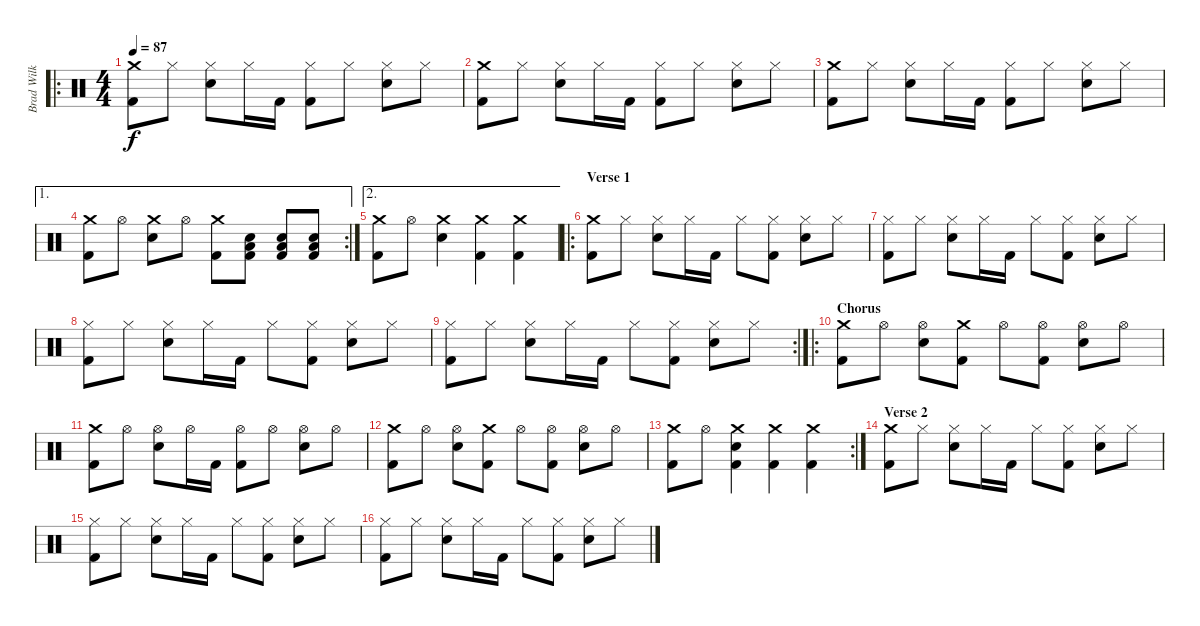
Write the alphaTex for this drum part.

\track ("Brad Wilk" "Brad Wilk") {instrument percussion}
\staff {score}
\articulation defaults
\ro
\ts (4 4)
\tempo 87
\clef neutral
\ks c
("Crash medium (hit)" "Kick (hit) 2").8{dy f} "Hi-Hat (closed)".8 ("Hi-Hat (closed)" "Electric Snare (hit)").8 "Hi-Hat (closed)".16 "Kick (hit) 2".16 ("Hi-Hat (closed)" "Kick (hit) 2").8 "Hi-Hat (closed)".8 ("Hi-Hat (closed)" "Electric Snare (hit)").8 "Hi-Hat (closed)".8 |
("Crash medium (hit)" "Kick (hit) 2").8 "Hi-Hat (closed)".8 ("Hi-Hat (closed)" "Electric Snare (hit)").8 "Hi-Hat (closed)".16 "Kick (hit) 2".16 ("Hi-Hat (closed)" "Kick (hit) 2").8 "Hi-Hat (closed)".8 ("Hi-Hat (closed)" "Electric Snare (hit)").8 "Hi-Hat (closed)".8 |
("Crash medium (hit)" "Kick (hit) 2").8 "Hi-Hat (closed)".8 ("Hi-Hat (closed)" "Electric Snare (hit)").8 "Hi-Hat (closed)".16 "Kick (hit) 2".16 ("Hi-Hat (closed)" "Kick (hit) 2").8 "Hi-Hat (closed)".8 ("Hi-Hat (closed)" "Electric Snare (hit)").8 "Hi-Hat (closed)".8 |
\ae 1
\rc 2
("Crash medium (hit)" "Kick (hit) 2").8 "Hi-Hat (open)".8 ("Crash medium (hit)" "Electric Snare (hit)").8 "Hi-Hat (open)".8 ("Crash medium (hit)" "Kick (hit) 2").8 ("Electric Snare (hit)" "Low Tom (hit)" "Kick (hit) 2").8 ("Electric Snare (hit)" "Low Tom (hit)" "Kick (hit) 2").8 ("Electric Snare (hit)" "Low Tom (hit)" "Kick (hit) 2").8 |
\ae 2
("Crash medium (hit)" "Kick (hit) 2").8 "Hi-Hat (open)".8 ("Crash medium (hit)" "Electric Snare (hit)").4 ("Crash medium (hit)" "Kick (hit) 2").4 ("Crash medium (hit)" "Kick (hit) 2").4 |
\ro
\section ("" "Verse 1")
("Crash medium (hit)" "Kick (hit) 2").8 "Hi-Hat (closed)".8 ("Hi-Hat (closed)" "Electric Snare (hit)").8 "Hi-Hat (closed)".16 "Kick (hit) 2".16 "Hi-Hat (closed)".8 ("Hi-Hat (closed)" "Kick (hit) 2").8 ("Hi-Hat (closed)" "Electric Snare (hit)").8 "Hi-Hat (closed)".8 |
("Hi-Hat (closed)" "Kick (hit) 2").8 "Hi-Hat (closed)".8 ("Hi-Hat (closed)" "Electric Snare (hit)").8 "Hi-Hat (closed)".16 "Kick (hit) 2".16 "Hi-Hat (closed)".8 ("Hi-Hat (closed)" "Kick (hit) 2").8 ("Hi-Hat (closed)" "Electric Snare (hit)").8 "Hi-Hat (closed)".8 |
("Hi-Hat (closed)" "Kick (hit) 2").8 "Hi-Hat (closed)".8 ("Hi-Hat (closed)" "Electric Snare (hit)").8 "Hi-Hat (closed)".16 "Kick (hit) 2".16 "Hi-Hat (closed)".8 ("Hi-Hat (closed)" "Kick (hit) 2").8 ("Hi-Hat (closed)" "Electric Snare (hit)").8 "Hi-Hat (closed)".8 |
\rc 2
("Hi-Hat (closed)" "Kick (hit) 2").8 "Hi-Hat (closed)".8 ("Hi-Hat (closed)" "Electric Snare (hit)").8 "Hi-Hat (closed)".16 "Kick (hit) 2".16 "Hi-Hat (closed)".8 ("Hi-Hat (closed)" "Kick (hit) 2").8 ("Hi-Hat (closed)" "Electric Snare (hit)").8 "Hi-Hat (closed)".8 |
\ro
\section ("" "Chorus")
("Crash medium (hit)" "Kick (hit) 2").8 "Hi-Hat (open)".8 ("Hi-Hat (open)" "Electric Snare (hit)").8 ("Crash medium (hit)" "Kick (hit) 2").8 "Hi-Hat (open)".8 ("Hi-Hat (open)" "Kick (hit) 2").8 ("Hi-Hat (open)" "Electric Snare (hit)").8 "Hi-Hat (open)".8 |
("Crash medium (hit)" "Kick (hit) 2").8 "Hi-Hat (open)".8 ("Hi-Hat (open)" "Electric Snare (hit)").8 "Hi-Hat (open)".16 "Kick (hit) 2".16 ("Hi-Hat (open)" "Kick (hit) 2").8 "Hi-Hat (open)".8 ("Hi-Hat (open)" "Electric Snare (hit)").8 "Hi-Hat (open)".8 |
("Crash medium (hit)" "Kick (hit) 2").8 "Hi-Hat (open)".8 ("Hi-Hat (open)" "Electric Snare (hit)").8 ("Crash medium (hit)" "Kick (hit) 2").8 "Hi-Hat (open)".8 ("Hi-Hat (open)" "Kick (hit) 2").8 ("Hi-Hat (open)" "Electric Snare (hit)").8 "Hi-Hat (open)".8 |
\rc 2
("Crash medium (hit)" "Kick (hit) 2").8 "Hi-Hat (open)".8 ("Crash medium (hit)" "Electric Snare (hit)" "Kick (hit) 2").4 ("Crash medium (hit)" "Kick (hit) 2").4 ("Crash medium (hit)" "Kick (hit) 2").4 |
\section ("" "Verse 2")
("Crash medium (hit)" "Kick (hit) 2").8 "Hi-Hat (closed)".8 ("Hi-Hat (closed)" "Electric Snare (hit)").8 "Hi-Hat (closed)".16 "Kick (hit) 2".16 "Hi-Hat (closed)".8 ("Hi-Hat (closed)" "Kick (hit) 2").8 ("Hi-Hat (closed)" "Electric Snare (hit)").8 "Hi-Hat (closed)".8 |
("Hi-Hat (closed)" "Kick (hit) 2").8 "Hi-Hat (closed)".8 ("Hi-Hat (closed)" "Electric Snare (hit)").8 "Hi-Hat (closed)".16 "Kick (hit) 2".16 "Hi-Hat (closed)".8 ("Hi-Hat (closed)" "Kick (hit) 2").8 ("Hi-Hat (closed)" "Electric Snare (hit)").8 "Hi-Hat (closed)".8 |
("Hi-Hat (closed)" "Kick (hit) 2").8 "Hi-Hat (closed)".8 ("Hi-Hat (closed)" "Electric Snare (hit)").8 "Hi-Hat (closed)".16 "Kick (hit) 2".16 "Hi-Hat (closed)".8 ("Hi-Hat (closed)" "Kick (hit) 2").8 ("Hi-Hat (closed)" "Electric Snare (hit)").8 "Hi-Hat (closed)".8
